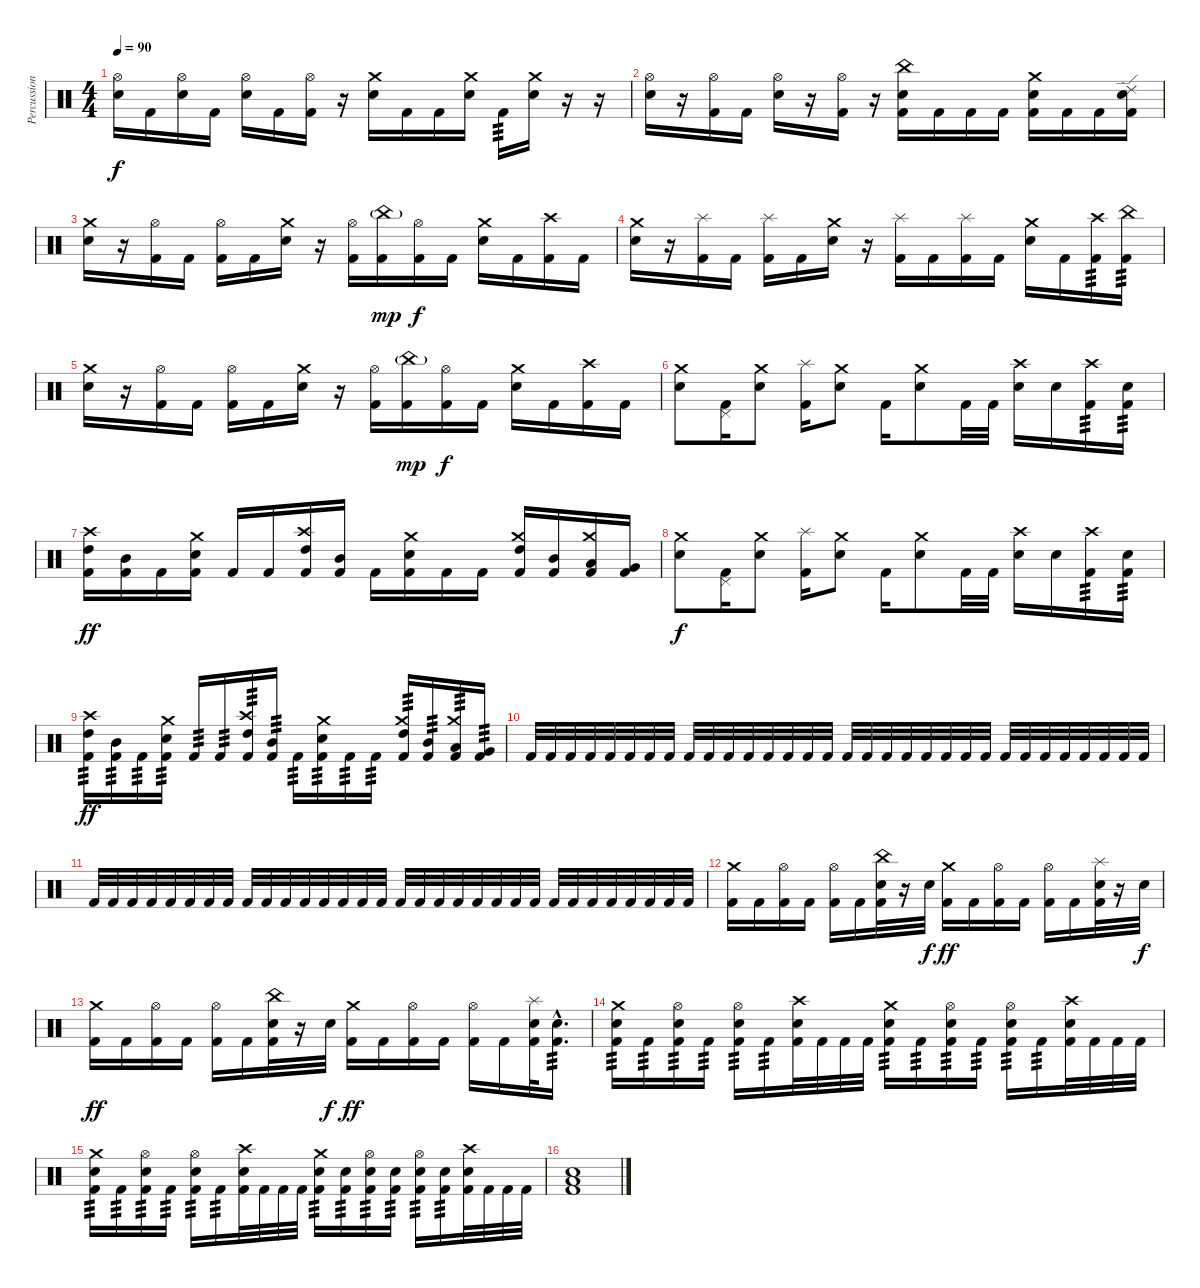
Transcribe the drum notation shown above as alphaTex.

\track ("Percussion" "Percussion") {instrument percussion}
\staff {score}
\articulation defaults
\ts (4 4)
\tempo 90
\clef neutral
\ks c
("Hi-Hat (open)" "Electric Snare (hit)").16{dy f} "Kick (hit) 2".16 ("Hi-Hat (open)" "Electric Snare (hit)").16 "Kick (hit) 2".16 ("Hi-Hat (open)" "Electric Snare (hit)").16 "Kick (hit) 2".16 ("Hi-Hat (open)" "Kick (hit) 2").16 r.16 ("Crash medium (hit)" "Electric Snare (hit)").16 "Kick (hit) 2".16 "Kick (hit) 2".16 ("Crash medium (hit)" "Electric Snare (hit)").16 "Kick (hit) 2".16{tp 3} ("Crash medium (hit)" "Electric Snare (hit)").16 r.16 r.16 |
("Hi-Hat (open)" "Electric Snare (hit)").16 r.16 ("Hi-Hat (open)" "Kick (hit) 2").16 "Kick (hit) 2".16 ("Hi-Hat (open)" "Electric Snare (hit)").16 r.16 ("Hi-Hat (open)" "Kick (hit) 2").16 r.16 ("China (hit)" "Electric Snare (hit)" "Kick (hit) 2").16 "Kick (hit) 2".16 "Kick (hit) 2".16 "Kick (hit) 2".16 ("Crash medium (hit)" "Electric Snare (hit)" "Kick (hit) 2").16 "Kick (hit) 2".16 "Kick (hit) 2".16 ("Ride (edge) 2" "Electric Snare (hit)" "Kick (hit) 2").16 |
("Crash medium (hit)" "Electric Snare (hit)").16 r.16 ("Hi-Hat (open)" "Kick (hit) 2").16 "Kick (hit) 2".16 ("Hi-Hat (open)" "Kick (hit) 2").16 "Kick (hit) 2".16 ("Crash medium (hit)" "Electric Snare (hit)").16 r.16 ("Hi-Hat (open)" "Kick (hit) 2").16 ("China (hit)"{g} "Kick (hit) 2").16{dy mp} ("Hi-Hat (open)" "Kick (hit) 2").16{dy f} "Kick (hit) 2".16 ("Crash medium (hit)" "Electric Snare (hit)").16 "Kick (hit) 2".16 ("Crash high (hit)" "Kick (hit) 2").16 "Kick (hit) 2".16 |
("Crash medium (hit)" "Electric Snare (hit)").16 r.16 ("Splash (hit)" "Kick (hit) 2").16 "Kick (hit) 2".16 ("Splash (hit)" "Kick (hit) 2").16 "Kick (hit) 2".16 ("Crash medium (hit)" "Electric Snare (hit)").16 r.16 ("Splash (hit)" "Kick (hit) 2").16 "Kick (hit) 2".16 ("Splash (hit)" "Kick (hit) 2").16 "Kick (hit) 2".16 ("Crash medium (hit)" "Electric Snare (hit)").16 "Kick (hit) 2".16 ("Crash high (hit)" "Kick (hit) 2").16{tp 3} ("China (hit)" "Kick (hit) 2").16{tp 3} |
("Crash medium (hit)" "Electric Snare (hit)").16 r.16 ("Hi-Hat (open)" "Kick (hit) 2").16 "Kick (hit) 2".16 ("Hi-Hat (open)" "Kick (hit) 2").16 "Kick (hit) 2".16 ("Crash medium (hit)" "Electric Snare (hit)").16 r.16 ("Hi-Hat (open)" "Kick (hit) 2").16 ("China (hit)"{g} "Kick (hit) 2").16{dy mp} ("Hi-Hat (open)" "Kick (hit) 2").16{dy f} "Kick (hit) 2".16 ("Crash medium (hit)" "Electric Snare (hit)").16 "Kick (hit) 2".16 ("Crash high (hit)" "Kick (hit) 2").16 "Kick (hit) 2".16 |
("Crash medium (hit)" "Electric Snare (hit)").8 ("Pedal Hi-Hat (hit)" "Kick (hit) 2").16 ("Crash medium (hit)" "Electric Snare (hit)").8 ("Splash (hit)" "Kick (hit) 2").16 ("Crash medium (hit)" "Electric Snare (hit)").8 "Kick (hit) 2".16 ("Crash medium (hit)" "Electric Snare (hit)").8 "Kick (hit) 2".32 "Kick (hit) 2".32 ("Crash high (hit)" "Electric Snare (hit)").16 "Electric Snare (hit)".16 ("Crash high (hit)" "Kick (hit) 2").16{tp 3} ("Electric Snare (hit)" "Kick (hit) 2").16{tp 3} |
("Crash high (hit)" "High Tom (hit)" "Kick (hit) 2").16{dy ff} ("Mid Tom (hit)" "Kick (hit) 2").16 "Kick (hit) 2".16 ("Crash medium (hit)" "Electric Snare (hit)" "Kick (hit) 2").16 "Kick (hit) 2".16 "Kick (hit) 2".16 ("Crash high (hit)" "High Tom (hit)" "Kick (hit) 2").16 ("Mid Tom (hit)" "Kick (hit) 2").16 "Kick (hit) 2".16 ("Crash medium (hit)" "Electric Snare (hit)" "Kick (hit) 2").16 "Kick (hit) 2".16 "Kick (hit) 2".16 ("Crash medium (hit)" "High Tom (hit)" "Kick (hit) 2").16 ("Mid Tom (hit)" "Kick (hit) 2").16 ("Crash medium (hit)" "Low Tom (hit)" "Kick (hit) 2").16 ("Very Low Tom (hit)" "Kick (hit) 2").16 |
("Crash medium (hit)" "Electric Snare (hit)").8{dy f} ("Pedal Hi-Hat (hit)" "Kick (hit) 2").16 ("Crash medium (hit)" "Electric Snare (hit)").8 ("Splash (hit)" "Kick (hit) 2").16 ("Crash medium (hit)" "Electric Snare (hit)").8 "Kick (hit) 2".16 ("Crash medium (hit)" "Electric Snare (hit)").8 "Kick (hit) 2".32 "Kick (hit) 2".32 ("Crash high (hit)" "Electric Snare (hit)").16 "Electric Snare (hit)".16 ("Crash high (hit)" "Kick (hit) 2").16{tp 3} ("Electric Snare (hit)" "Kick (hit) 2").16{tp 3} |
("Crash high (hit)" "High Tom (hit)" "Kick (hit) 2").16{tp 3 dy ff} ("Mid Tom (hit)" "Kick (hit) 2").16{tp 3} "Kick (hit) 2".16{tp 3} ("Crash medium (hit)" "Electric Snare (hit)" "Kick (hit) 2").16{tp 3} "Kick (hit) 2".16{tp 3} "Kick (hit) 2".16{tp 3} ("Crash high (hit)" "High Tom (hit)" "Kick (hit) 2").16{tp 3} ("Mid Tom (hit)" "Kick (hit) 2").16{tp 3} "Kick (hit) 2".16{tp 3} ("Crash medium (hit)" "Electric Snare (hit)" "Kick (hit) 2").16{tp 3} "Kick (hit) 2".16{tp 3} "Kick (hit) 2".16{tp 3} ("Crash medium (hit)" "High Tom (hit)" "Kick (hit) 2").16{tp 3} ("Mid Tom (hit)" "Kick (hit) 2").16{tp 3} ("Crash medium (hit)" "Low Tom (hit)" "Kick (hit) 2").16{tp 3} ("Very Low Tom (hit)" "Kick (hit) 2").16{tp 3} |
"Kick (hit) 2".32 "Kick (hit) 2".32 "Kick (hit) 2".32 "Kick (hit) 2".32 "Kick (hit) 2".32 "Kick (hit) 2".32 "Kick (hit) 2".32 "Kick (hit) 2".32 "Kick (hit) 2".32 "Kick (hit) 2".32 "Kick (hit) 2".32 "Kick (hit) 2".32 "Kick (hit) 2".32 "Kick (hit) 2".32 "Kick (hit) 2".32 "Kick (hit) 2".32 "Kick (hit) 2".32 "Kick (hit) 2".32 "Kick (hit) 2".32 "Kick (hit) 2".32 "Kick (hit) 2".32 "Kick (hit) 2".32 "Kick (hit) 2".32 "Kick (hit) 2".32 "Kick (hit) 2".32 "Kick (hit) 2".32 "Kick (hit) 2".32 "Kick (hit) 2".32 "Kick (hit) 2".32 "Kick (hit) 2".32 "Kick (hit) 2".32 "Kick (hit) 2".32 |
"Kick (hit) 2".32 "Kick (hit) 2".32 "Kick (hit) 2".32 "Kick (hit) 2".32 "Kick (hit) 2".32 "Kick (hit) 2".32 "Kick (hit) 2".32 "Kick (hit) 2".32 "Kick (hit) 2".32 "Kick (hit) 2".32 "Kick (hit) 2".32 "Kick (hit) 2".32 "Kick (hit) 2".32 "Kick (hit) 2".32 "Kick (hit) 2".32 "Kick (hit) 2".32 "Kick (hit) 2".32 "Kick (hit) 2".32 "Kick (hit) 2".32 "Kick (hit) 2".32 "Kick (hit) 2".32 "Kick (hit) 2".32 "Kick (hit) 2".32 "Kick (hit) 2".32 "Kick (hit) 2".32 "Kick (hit) 2".32 "Kick (hit) 2".32 "Kick (hit) 2".32 "Kick (hit) 2".32 "Kick (hit) 2".32 "Kick (hit) 2".32 "Kick (hit) 2".32 |
("Crash medium (hit)" "Kick (hit) 2").16 "Kick (hit) 2".16 ("Hi-Hat (open)" "Kick (hit) 2").16 "Kick (hit) 2".16 ("Hi-Hat (open)" "Kick (hit) 2").16 "Kick (hit) 2".16 ("China (hit)" "Electric Snare (hit)" "Kick (hit) 2").32 r.16 "Electric Snare (hit)".32{dy f} ("Crash medium (hit)" "Kick (hit) 2").16{dy ff} "Kick (hit) 2".16 ("Hi-Hat (open)" "Kick (hit) 2").16 "Kick (hit) 2".16 ("Hi-Hat (open)" "Kick (hit) 2").16 "Kick (hit) 2".16 ("Splash (hit)" "Electric Snare (hit)" "Kick (hit) 2").32 r.16 "Electric Snare (hit)".32{dy f} |
("Crash medium (hit)" "Kick (hit) 2").16{dy ff} "Kick (hit) 2".16 ("Hi-Hat (open)" "Kick (hit) 2").16 "Kick (hit) 2".16 ("Hi-Hat (open)" "Kick (hit) 2").16 "Kick (hit) 2".16 ("China (hit)" "Electric Snare (hit)" "Kick (hit) 2").32 r.16 "Electric Snare (hit)".32{dy f} ("Crash medium (hit)" "Kick (hit) 2").16{dy ff} "Kick (hit) 2".16 ("Hi-Hat (open)" "Kick (hit) 2").16 "Kick (hit) 2".16 ("Hi-Hat (open)" "Kick (hit) 2").16 "Kick (hit) 2".16 ("Splash (hit)" "Electric Snare (hit)" "Kick (hit) 2").32 ("Electric Snare (hit)"{hac} "Kick (hit) 2"{hac}).16{d tp 3} |
("Crash medium (hit)" "Electric Snare (hit)" "Kick (hit) 2").16{tp 3} "Kick (hit) 2".16{tp 3} ("Hi-Hat (open)" "Electric Snare (hit)" "Kick (hit) 2").16{tp 3} "Kick (hit) 2".16{tp 3} ("Hi-Hat (open)" "Electric Snare (hit)" "Kick (hit) 2").16{tp 3} "Kick (hit) 2".16{tp 3} ("Crash high (hit)" "Electric Snare (hit)" "Kick (hit) 2").32 "Kick (hit) 2".32 "Kick (hit) 2".32 "Kick (hit) 2".32 ("Crash medium (hit)" "Electric Snare (hit)" "Kick (hit) 2").16{tp 3} "Kick (hit) 2".16{tp 3} ("Hi-Hat (open)" "Electric Snare (hit)" "Kick (hit) 2").16{tp 3} "Kick (hit) 2".16{tp 3} ("Hi-Hat (open)" "Electric Snare (hit)" "Kick (hit) 2").16{tp 3} "Kick (hit) 2".16{tp 3} ("Crash high (hit)" "Electric Snare (hit)" "Kick (hit) 2").32 "Kick (hit) 2".32 "Kick (hit) 2".32 "Kick (hit) 2".32 |
("Crash medium (hit)" "Electric Snare (hit)" "Kick (hit) 2").16{tp 3} "Kick (hit) 2".16{tp 3} ("Hi-Hat (open)" "Electric Snare (hit)" "Kick (hit) 2").16{tp 3} "Kick (hit) 2".16{tp 3} ("Hi-Hat (open)" "Electric Snare (hit)" "Kick (hit) 2").16{tp 3} "Kick (hit) 2".16{tp 3} ("Crash high (hit)" "Electric Snare (hit)" "Kick (hit) 2").32 "Kick (hit) 2".32 "Kick (hit) 2".32 "Kick (hit) 2".32 ("Crash medium (hit)" "Electric Snare (hit)" "Kick (hit) 2").16{tp 3} ("Electric Snare (hit)" "Kick (hit) 2").16{tp 3} ("Hi-Hat (open)" "Electric Snare (hit)" "Kick (hit) 2").16{tp 3} ("Electric Snare (hit)" "Kick (hit) 2").16{tp 3} ("Hi-Hat (open)" "Electric Snare (hit)" "Kick (hit) 2").16{tp 3} ("Electric Snare (hit)" "Kick (hit) 2").16{tp 3} ("Crash high (hit)" "Electric Snare (hit)" "Kick (hit) 2").32 "Kick (hit) 2".32 "Kick (hit) 2".32 "Kick (hit) 2".32 |
("Snare (hit) 2" "Low Floor Tom (hit)" "Kick (hit) 2").1
